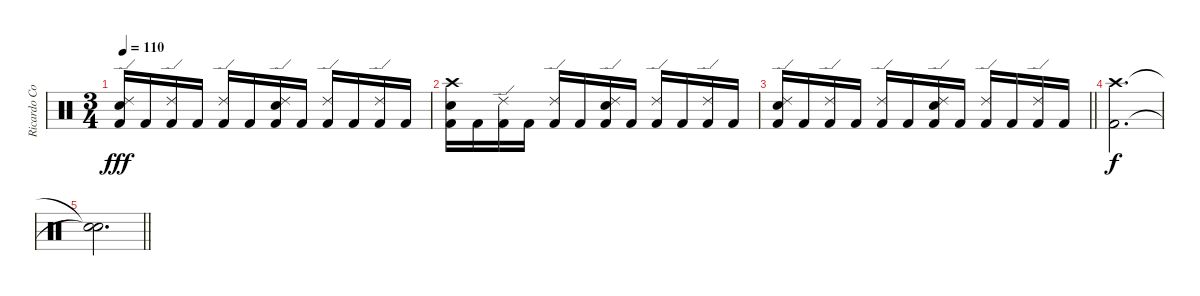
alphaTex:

\track ("Ricardo Confessori" "Ricardo Co") {instrument percussion}
\staff {score}
\articulation defaults
\ts (3 4)
\tempo 110
\clef neutral
\ks c
("Ride (edge) 2" "Electric Snare (hit)" "Kick (hit) 2").16{dy fff} "Kick (hit) 2".16 ("Ride (edge) 2" "Kick (hit) 2").16 "Kick (hit) 2".16 ("Ride (edge) 2" "Kick (hit) 2").16 "Kick (hit) 2".16 ("Ride (edge) 2" "Electric Snare (hit)" "Kick (hit) 2").16 "Kick (hit) 2".16 ("Ride (edge) 2" "Kick (hit) 2").16 "Kick (hit) 2".16 ("Ride (edge) 2" "Kick (hit) 2").16 "Kick (hit) 2".16 |
("Crash high (hit)" "Electric Snare (hit)" "Kick (hit) 2").16 "Kick (hit) 2".16 ("Ride (edge) 2" "Kick (hit) 2").16 "Kick (hit) 2".16 ("Ride (edge) 2" "Kick (hit) 2").16 "Kick (hit) 2".16 ("Ride (edge) 2" "Electric Snare (hit)" "Kick (hit) 2").16 "Kick (hit) 2".16 ("Ride (edge) 2" "Kick (hit) 2").16 "Kick (hit) 2".16 ("Ride (edge) 2" "Kick (hit) 2").16 "Kick (hit) 2".16 |
\barLineRight lightlight
("Ride (edge) 2" "Electric Snare (hit)" "Kick (hit) 2").16 "Kick (hit) 2".16 ("Ride (edge) 2" "Kick (hit) 2").16 "Kick (hit) 2".16 ("Ride (edge) 2" "Kick (hit) 2").16 "Kick (hit) 2".16 ("Ride (edge) 2" "Electric Snare (hit)" "Kick (hit) 2").16 "Kick (hit) 2".16 ("Ride (edge) 2" "Kick (hit) 2").16 "Kick (hit) 2".16 ("Ride (edge) 2" "Kick (hit) 2").16 "Kick (hit) 2".16 |
("Crash high (hit)" "Kick (hit) 2").2{d dy f} |
\barLineRight lightlight
("Snare (hit)"{t} "Snare (hit)"{t}).2{d}
